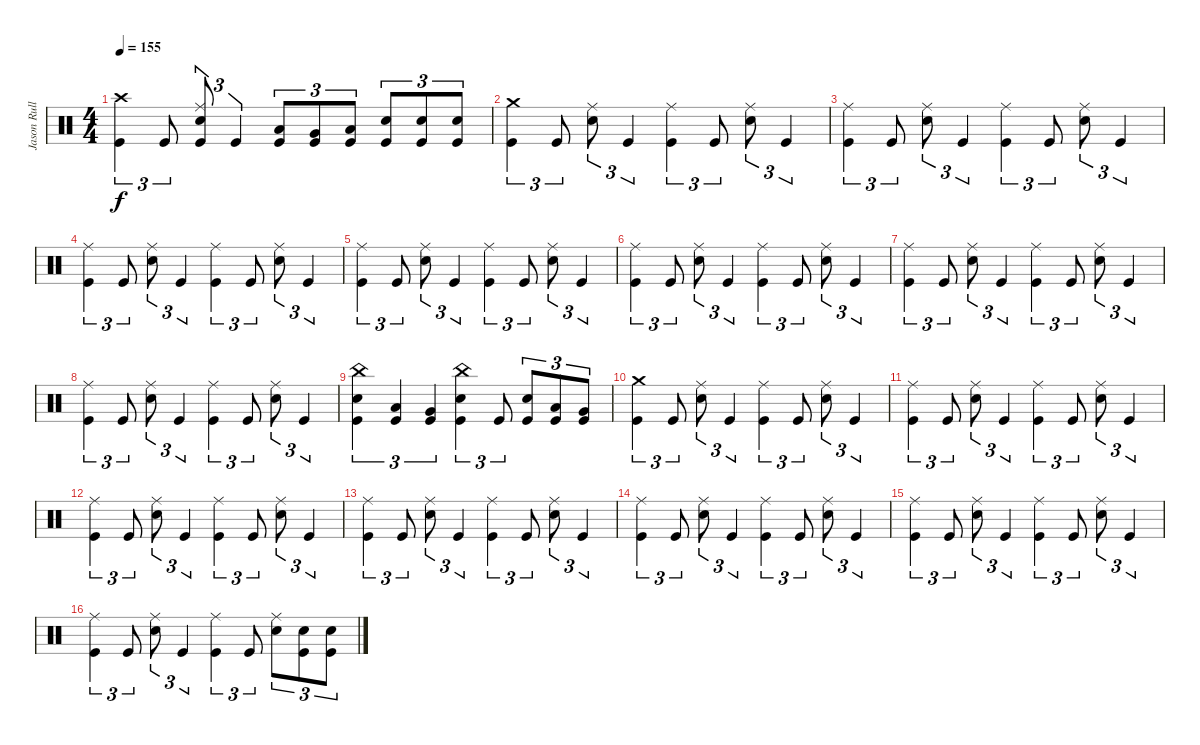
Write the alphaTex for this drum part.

\track ("Jason Rullo - BATTERIE" "Jason Rull") {instrument percussion}
\staff {score}
\articulation defaults
\ts (4 4)
\tempo 155
\clef neutral
\ks c
("Crash high (hit)" "Kick (hit)").4{tu (3 2) dy f} "Kick (hit)".8{tu (3 2)} ("Ride (middle)" "Snare (hit) 2" "Kick (hit)").8{tu (3 2)} "Kick (hit)".4{tu (3 2)} ("Low Tom (hit)" "Kick (hit)").8{tu (3 2)} ("Very Low Tom (hit)" "Kick (hit)").8{tu (3 2)} ("Low Floor Tom (hit)" "Kick (hit)").8{tu (3 2)} ("Snare (hit) 2" "Kick (hit)").8{tu (3 2)} ("Snare (hit) 2" "Kick (hit)").8{tu (3 2)} ("Snare (hit) 2" "Kick (hit)").8{tu (3 2)} |
("Crash medium (hit)" "Kick (hit)").4{tu (3 2)} "Kick (hit)".8{tu (3 2)} ("Ride (middle)" "Snare (hit) 2").8{tu (3 2)} "Kick (hit)".4{tu (3 2)} ("Ride (middle)" "Kick (hit)").4{tu (3 2)} "Kick (hit)".8{tu (3 2)} ("Ride (middle)" "Snare (hit) 2").8{tu (3 2)} "Kick (hit)".4{tu (3 2)} |
("Ride (middle)" "Kick (hit)").4{tu (3 2)} "Kick (hit)".8{tu (3 2)} ("Ride (middle)" "Snare (hit) 2").8{tu (3 2)} "Kick (hit)".4{tu (3 2)} ("Ride (middle)" "Kick (hit)").4{tu (3 2)} "Kick (hit)".8{tu (3 2)} ("Ride (middle)" "Snare (hit) 2").8{tu (3 2)} "Kick (hit)".4{tu (3 2)} |
("Ride (middle)" "Kick (hit)").4{tu (3 2)} "Kick (hit)".8{tu (3 2)} ("Ride (middle)" "Snare (hit) 2").8{tu (3 2)} "Kick (hit)".4{tu (3 2)} ("Ride (middle)" "Kick (hit)").4{tu (3 2)} "Kick (hit)".8{tu (3 2)} ("Ride (middle)" "Snare (hit) 2").8{tu (3 2)} "Kick (hit)".4{tu (3 2)} |
("Ride (middle)" "Kick (hit)").4{tu (3 2)} "Kick (hit)".8{tu (3 2)} ("Ride (middle)" "Snare (hit) 2").8{tu (3 2)} "Kick (hit)".4{tu (3 2)} ("Ride (middle)" "Kick (hit)").4{tu (3 2)} "Kick (hit)".8{tu (3 2)} ("Ride (middle)" "Snare (hit) 2").8{tu (3 2)} "Kick (hit)".4{tu (3 2)} |
("Ride (middle)" "Kick (hit)").4{tu (3 2)} "Kick (hit)".8{tu (3 2)} ("Ride (middle)" "Snare (hit) 2").8{tu (3 2)} "Kick (hit)".4{tu (3 2)} ("Ride (middle)" "Kick (hit)").4{tu (3 2)} "Kick (hit)".8{tu (3 2)} ("Ride (middle)" "Snare (hit) 2").8{tu (3 2)} "Kick (hit)".4{tu (3 2)} |
("Ride (middle)" "Kick (hit)").4{tu (3 2)} "Kick (hit)".8{tu (3 2)} ("Ride (middle)" "Snare (hit) 2").8{tu (3 2)} "Kick (hit)".4{tu (3 2)} ("Ride (middle)" "Kick (hit)").4{tu (3 2)} "Kick (hit)".8{tu (3 2)} ("Ride (middle)" "Snare (hit) 2").8{tu (3 2)} "Kick (hit)".4{tu (3 2)} |
("Ride (middle)" "Kick (hit)").4{tu (3 2)} "Kick (hit)".8{tu (3 2)} ("Ride (middle)" "Snare (hit) 2").8{tu (3 2)} "Kick (hit)".4{tu (3 2)} ("Ride (middle)" "Kick (hit)").4{tu (3 2)} "Kick (hit)".8{tu (3 2)} ("Ride (middle)" "Snare (hit) 2").8{tu (3 2)} "Kick (hit)".4{tu (3 2)} |
("China (hit)" "Snare (hit) 2" "Kick (hit)").4{tu (3 2)} ("Low Tom (hit)" "Kick (hit)").4{tu (3 2)} ("Very Low Tom (hit)" "Kick (hit)").4{tu (3 2)} ("China (hit)" "Snare (hit) 2" "Kick (hit)").4{tu (3 2)} "Kick (hit)".8{tu (3 2)} ("Snare (hit) 2" "Kick (hit)").8{tu (3 2)} ("Low Tom (hit)" "Kick (hit)").8{tu (3 2)} ("Very Low Tom (hit)" "Kick (hit)").8{tu (3 2)} |
("Crash medium (hit)" "Kick (hit)").4{tu (3 2)} "Kick (hit)".8{tu (3 2)} ("Ride (middle)" "Snare (hit) 2").8{tu (3 2)} "Kick (hit)".4{tu (3 2)} ("Ride (middle)" "Kick (hit)").4{tu (3 2)} "Kick (hit)".8{tu (3 2)} ("Ride (middle)" "Snare (hit) 2").8{tu (3 2)} "Kick (hit)".4{tu (3 2)} |
("Ride (middle)" "Kick (hit)").4{tu (3 2)} "Kick (hit)".8{tu (3 2)} ("Ride (middle)" "Snare (hit) 2").8{tu (3 2)} "Kick (hit)".4{tu (3 2)} ("Ride (middle)" "Kick (hit)").4{tu (3 2)} "Kick (hit)".8{tu (3 2)} ("Ride (middle)" "Snare (hit) 2").8{tu (3 2)} "Kick (hit)".4{tu (3 2)} |
("Ride (middle)" "Kick (hit)").4{tu (3 2)} "Kick (hit)".8{tu (3 2)} ("Ride (middle)" "Snare (hit) 2").8{tu (3 2)} "Kick (hit)".4{tu (3 2)} ("Ride (middle)" "Kick (hit)").4{tu (3 2)} "Kick (hit)".8{tu (3 2)} ("Ride (middle)" "Snare (hit) 2").8{tu (3 2)} "Kick (hit)".4{tu (3 2)} |
("Ride (middle)" "Kick (hit)").4{tu (3 2)} "Kick (hit)".8{tu (3 2)} ("Ride (middle)" "Snare (hit) 2").8{tu (3 2)} "Kick (hit)".4{tu (3 2)} ("Ride (middle)" "Kick (hit)").4{tu (3 2)} "Kick (hit)".8{tu (3 2)} ("Ride (middle)" "Snare (hit) 2").8{tu (3 2)} "Kick (hit)".4{tu (3 2)} |
("Ride (middle)" "Kick (hit)").4{tu (3 2)} "Kick (hit)".8{tu (3 2)} ("Ride (middle)" "Snare (hit) 2").8{tu (3 2)} "Kick (hit)".4{tu (3 2)} ("Ride (middle)" "Kick (hit)").4{tu (3 2)} "Kick (hit)".8{tu (3 2)} ("Ride (middle)" "Snare (hit) 2").8{tu (3 2)} "Kick (hit)".4{tu (3 2)} |
("Ride (middle)" "Kick (hit)").4{tu (3 2)} "Kick (hit)".8{tu (3 2)} ("Ride (middle)" "Snare (hit) 2").8{tu (3 2)} "Kick (hit)".4{tu (3 2)} ("Ride (middle)" "Kick (hit)").4{tu (3 2)} "Kick (hit)".8{tu (3 2)} ("Ride (middle)" "Snare (hit) 2").8{tu (3 2)} "Kick (hit)".4{tu (3 2)} |
("Ride (middle)" "Kick (hit)").4{tu (3 2)} "Kick (hit)".8{tu (3 2)} ("Ride (middle)" "Snare (hit) 2").8{tu (3 2)} "Kick (hit)".4{tu (3 2)} ("Ride (middle)" "Kick (hit)").4{tu (3 2)} "Kick (hit)".8{tu (3 2)} ("Ride (middle)" "Snare (hit) 2").8{tu (3 2)} ("Snare (hit) 2" "Kick (hit)").8{tu (3 2)} ("Snare (hit) 2" "Kick (hit)").8{tu (3 2)}
